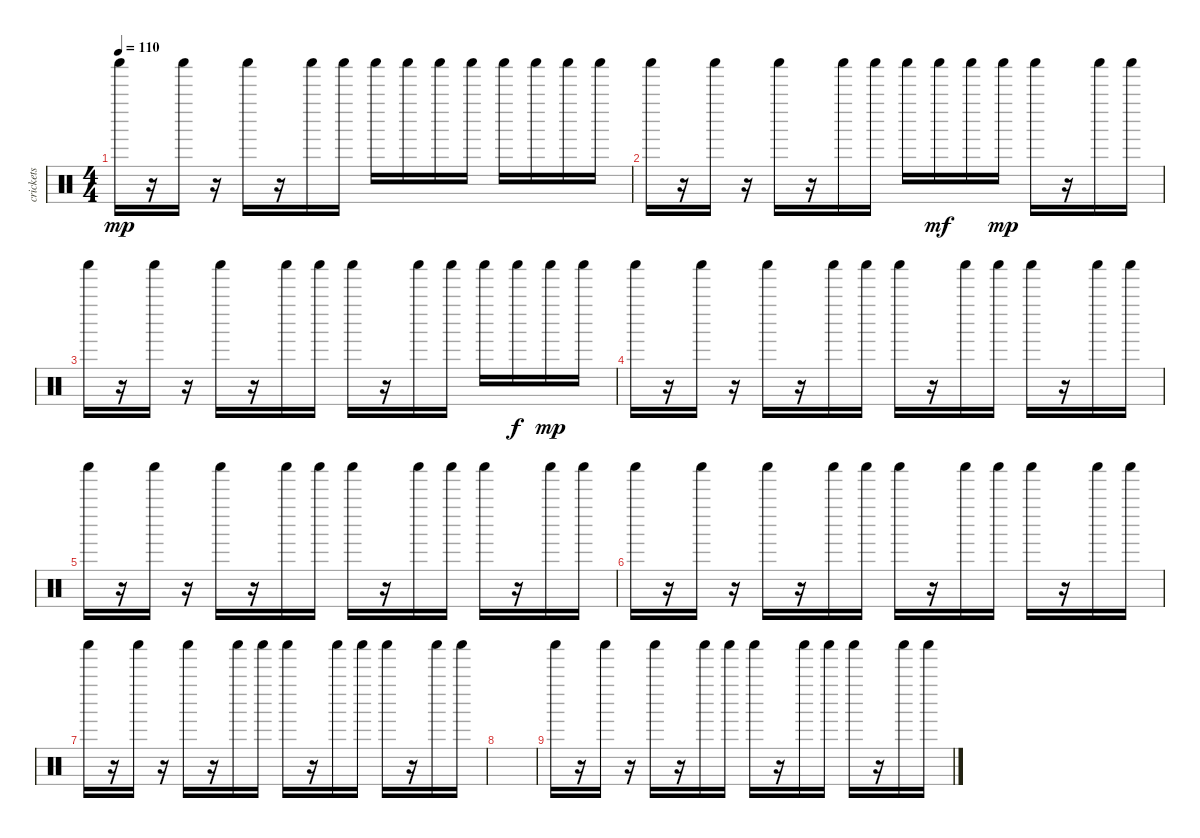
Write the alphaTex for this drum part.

\track ("crickets" "crickets") {instrument percussion}
\staff {score}
\articulation defaults
\ts (4 4)
\tempo 110
\clef neutral
\ks c "Shaker (hit)".16{dy mp}
r.16 "Shaker (hit)".16 r.16 "Shaker (hit)".16 r.16 "Shaker (hit)".16 "Shaker (hit)".16 "Shaker (hit)".16 "Shaker (hit)".16 "Shaker (hit)".16 "Shaker (hit)".16 "Shaker (hit)".16 "Shaker (hit)".16 "Shaker (hit)".16 "Shaker (hit)".16 |
"Shaker (hit)".16 r.16 "Shaker (hit)".16 r.16 "Shaker (hit)".16 r.16 "Shaker (hit)".16 "Shaker (hit)".16 "Shaker (hit)".16 "Shaker (hit)".16{dy mf} "Shaker (hit)".16 "Shaker (hit)".16{dy mp} "Shaker (hit)".16 r.16 "Shaker (hit)".16 "Shaker (hit)".16 |
"Shaker (hit)".16 r.16 "Shaker (hit)".16 r.16 "Shaker (hit)".16 r.16 "Shaker (hit)".16 "Shaker (hit)".16 "Shaker (hit)".16 r.16 "Shaker (hit)".16 "Shaker (hit)".16 "Shaker (hit)".16 "Shaker (hit)".16{dy f} "Shaker (hit)".16{dy mp} "Shaker (hit)".16 |
"Shaker (hit)".16 r.16 "Shaker (hit)".16 r.16 "Shaker (hit)".16 r.16 "Shaker (hit)".16 "Shaker (hit)".16 "Shaker (hit)".16 r.16 "Shaker (hit)".16 "Shaker (hit)".16 "Shaker (hit)".16 r.16 "Shaker (hit)".16 "Shaker (hit)".16 |
"Shaker (hit)".16 r.16 "Shaker (hit)".16 r.16 "Shaker (hit)".16 r.16 "Shaker (hit)".16 "Shaker (hit)".16 "Shaker (hit)".16 r.16 "Shaker (hit)".16 "Shaker (hit)".16 "Shaker (hit)".16 r.16 "Shaker (hit)".16 "Shaker (hit)".16 |
"Shaker (hit)".16 r.16 "Shaker (hit)".16 r.16 "Shaker (hit)".16 r.16 "Shaker (hit)".16 "Shaker (hit)".16 "Shaker (hit)".16 r.16 "Shaker (hit)".16 "Shaker (hit)".16 "Shaker (hit)".16 r.16 "Shaker (hit)".16 "Shaker (hit)".16 |
"Shaker (hit)".16 r.16 "Shaker (hit)".16 r.16 "Shaker (hit)".16 r.16 "Shaker (hit)".16 "Shaker (hit)".16 "Shaker (hit)".16 r.16 "Shaker (hit)".16 "Shaker (hit)".16 "Shaker (hit)".16 r.16 "Shaker (hit)".16 "Shaker (hit)".16 |
|
"Shaker (hit)".16 r.16 "Shaker (hit)".16 r.16 "Shaker (hit)".16 r.16 "Shaker (hit)".16 "Shaker (hit)".16 "Shaker (hit)".16 r.16 "Shaker (hit)".16 "Shaker (hit)".16 "Shaker (hit)".16 r.16 "Shaker (hit)".16 "Shaker (hit)".16
